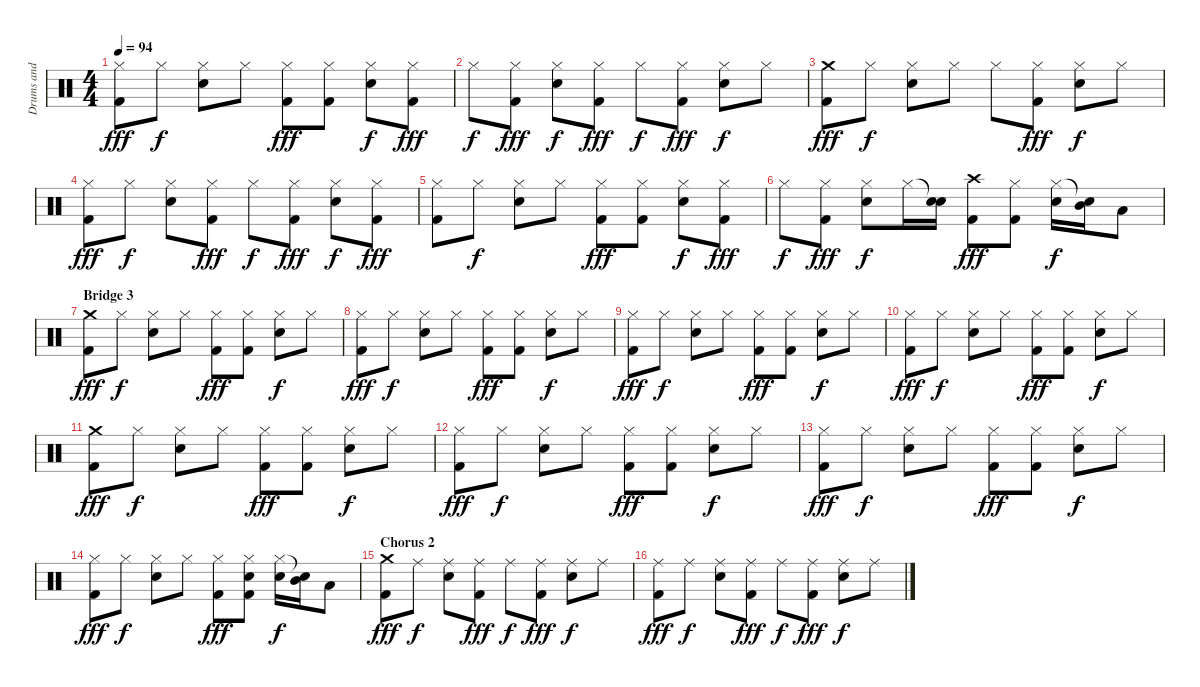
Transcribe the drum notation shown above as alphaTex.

\track ("Drums and Percussion" "Drums and ") {instrument percussion}
\staff {score}
\articulation defaults
\ts (4 4)
\tempo 94
\clef neutral
\ks c
("Hi-Hat (closed)" "Kick (hit) 2").8{dy fff} "Hi-Hat (closed)".8{dy f} ("Hi-Hat (closed)" "Snare (hit) 2").8 "Hi-Hat (closed)".8 ("Hi-Hat (closed)" "Kick (hit) 2").8{dy fff} ("Hi-Hat (closed)" "Kick (hit) 2").8 ("Hi-Hat (closed)" "Snare (hit) 2").8{dy f} ("Hi-Hat (closed)" "Kick (hit) 2").8{dy fff} |
"Hi-Hat (closed)".8{dy f} ("Hi-Hat (closed)" "Kick (hit) 2").8{dy fff} ("Hi-Hat (closed)" "Snare (hit) 2").8{dy f} ("Hi-Hat (closed)" "Kick (hit) 2").8{dy fff} "Hi-Hat (closed)".8{dy f} ("Hi-Hat (closed)" "Kick (hit) 2").8{dy fff} ("Hi-Hat (closed)" "Snare (hit) 2").8{dy f} "Hi-Hat (closed)".8 |
("Crash medium (hit)" "Kick (hit) 2").8{dy fff} "Hi-Hat (closed)".8{dy f} ("Hi-Hat (closed)" "Snare (hit) 2").8 "Hi-Hat (closed)".8 "Hi-Hat (closed)".8 ("Hi-Hat (closed)" "Kick (hit) 2").8{dy fff} ("Hi-Hat (closed)" "Snare (hit) 2").8{dy f} "Hi-Hat (closed)".8 |
("Hi-Hat (closed)" "Kick (hit) 2").8{dy fff} "Hi-Hat (closed)".8{dy f} ("Hi-Hat (closed)" "Snare (hit) 2").8 ("Hi-Hat (closed)" "Kick (hit) 2").8{dy fff} "Hi-Hat (closed)".8{dy f} ("Hi-Hat (closed)" "Kick (hit) 2").8{dy fff} ("Hi-Hat (closed)" "Snare (hit) 2").8{dy f} ("Hi-Hat (closed)" "Kick (hit) 2").8{dy fff} |
("Hi-Hat (closed)" "Kick (hit) 2").8 "Hi-Hat (closed)".8{dy f} ("Hi-Hat (closed)" "Snare (hit) 2").8 "Hi-Hat (closed)".8 ("Hi-Hat (closed)" "Kick (hit) 2").8{dy fff} ("Hi-Hat (closed)" "Kick (hit) 2").8 ("Hi-Hat (closed)" "Snare (hit) 2").8{dy f} ("Hi-Hat (closed)" "Kick (hit) 2").8{dy fff} |
"Hi-Hat (closed)".8{dy f} ("Hi-Hat (closed)" "Kick (hit) 2").8{dy fff} ("Hi-Hat (closed)" "Snare (hit) 2").8{dy f} "Hi-Hat (closed)".16 ("Snare (hit)"{t} "Snare (hit) 2").16 ("Crash high (hit)" "Kick (hit) 2").8{dy fff} ("Hi-Hat (closed)" "Kick (hit) 2").8 ("Hi-Hat (closed)" "Snare (hit) 2").16{dy f} ("Snare (hit)"{t} "Mid Tom (hit)").16 "Low Tom (hit)".8 |
\section ("" "Bridge 3")
("Crash medium (hit)" "Kick (hit) 2").8{dy fff} "Hi-Hat (closed)".8{dy f} ("Hi-Hat (closed)" "Snare (hit) 2").8 "Hi-Hat (closed)".8 ("Hi-Hat (closed)" "Kick (hit) 2").8{dy fff} ("Hi-Hat (closed)" "Kick (hit) 2").8 ("Hi-Hat (closed)" "Snare (hit) 2").8{dy f} "Hi-Hat (closed)".8 |
("Hi-Hat (closed)" "Kick (hit) 2").8{dy fff} "Hi-Hat (closed)".8{dy f} ("Hi-Hat (closed)" "Snare (hit) 2").8 "Hi-Hat (closed)".8 ("Hi-Hat (closed)" "Kick (hit) 2").8{dy fff} ("Hi-Hat (closed)" "Kick (hit) 2").8 ("Hi-Hat (closed)" "Snare (hit) 2").8{dy f} "Hi-Hat (closed)".8 |
("Hi-Hat (closed)" "Kick (hit) 2").8{dy fff} "Hi-Hat (closed)".8{dy f} ("Hi-Hat (closed)" "Snare (hit) 2").8 "Hi-Hat (closed)".8 ("Hi-Hat (closed)" "Kick (hit) 2").8{dy fff} ("Hi-Hat (closed)" "Kick (hit) 2").8 ("Hi-Hat (closed)" "Snare (hit) 2").8{dy f} "Hi-Hat (closed)".8 |
("Hi-Hat (closed)" "Kick (hit) 2").8{dy fff} "Hi-Hat (closed)".8{dy f} ("Hi-Hat (closed)" "Snare (hit) 2").8 "Hi-Hat (closed)".8 ("Hi-Hat (closed)" "Kick (hit) 2").8{dy fff} ("Hi-Hat (closed)" "Kick (hit) 2").8 ("Hi-Hat (closed)" "Snare (hit) 2").8{dy f} "Hi-Hat (closed)".8 |
("Crash medium (hit)" "Kick (hit) 2").8{dy fff} "Hi-Hat (closed)".8{dy f} ("Hi-Hat (closed)" "Snare (hit) 2").8 "Hi-Hat (closed)".8 ("Hi-Hat (closed)" "Kick (hit) 2").8{dy fff} ("Hi-Hat (closed)" "Kick (hit) 2").8 ("Hi-Hat (closed)" "Snare (hit) 2").8{dy f} "Hi-Hat (closed)".8 |
("Hi-Hat (closed)" "Kick (hit) 2").8{dy fff} "Hi-Hat (closed)".8{dy f} ("Hi-Hat (closed)" "Snare (hit) 2").8 "Hi-Hat (closed)".8 ("Hi-Hat (closed)" "Kick (hit) 2").8{dy fff} ("Hi-Hat (closed)" "Kick (hit) 2").8 ("Hi-Hat (closed)" "Snare (hit) 2").8{dy f} "Hi-Hat (closed)".8 |
("Hi-Hat (closed)" "Kick (hit) 2").8{dy fff} "Hi-Hat (closed)".8{dy f} ("Hi-Hat (closed)" "Snare (hit) 2").8 "Hi-Hat (closed)".8 ("Hi-Hat (closed)" "Kick (hit) 2").8{dy fff} ("Hi-Hat (closed)" "Kick (hit) 2").8 ("Hi-Hat (closed)" "Snare (hit) 2").8{dy f} "Hi-Hat (closed)".8 |
("Hi-Hat (closed)" "Kick (hit) 2").8{dy fff} "Hi-Hat (closed)".8{dy f} ("Hi-Hat (closed)" "Snare (hit) 2").8 "Hi-Hat (closed)".8 ("Hi-Hat (closed)" "Kick (hit) 2").8{dy fff} ("Hi-Hat (closed)" "Snare (hit) 2" "Kick (hit) 2").8 ("Hi-Hat (closed)" "Snare (hit) 2").16{dy f} ("Snare (hit)"{t} "Mid Tom (hit)").16 "Low Tom (hit)".8 |
\section ("" "Chorus 2")
("Crash medium (hit)" "Kick (hit) 2").8{dy fff} "Ride (middle)".8{dy f} ("Ride (middle)" "Snare (hit) 2").8 ("Ride (middle)" "Kick (hit) 2").8{dy fff} "Ride (middle)".8{dy f} ("Ride (middle)" "Kick (hit) 2").8{dy fff} ("Ride (middle)" "Snare (hit) 2").8{dy f} "Ride (middle)".8 |
("Ride (middle)" "Kick (hit) 2").8{dy fff} "Ride (middle)".8{dy f} ("Ride (middle)" "Snare (hit) 2").8 ("Ride (middle)" "Kick (hit) 2").8{dy fff} "Ride (middle)".8{dy f} ("Ride (middle)" "Kick (hit) 2").8{dy fff} ("Ride (middle)" "Snare (hit) 2").8{dy f} "Ride (middle)".8
